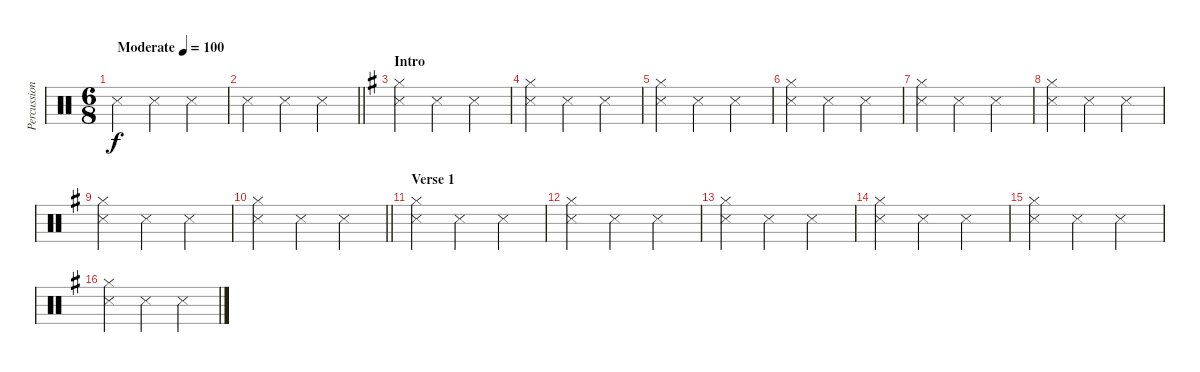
\track ("Percussion" "Percussion") {mute instrument percussion}
\staff {score}
\articulation defaults
\ts (6 8)
\tempo (100 "Moderate")
\clef neutral
\ks c "Snare (side stick) 3".4{dy f} "Snare (side stick) 3".4 "Snare (side stick) 3".4
|
\barLineRight lightlight "Snare (side stick) 3".4 "Snare (side stick) 3".4 "Snare (side stick) 3".4
|
\section ("" "Intro")
\ks g
("Hi-Hat (closed)" "Snare (side stick) 3").4 "Snare (side stick) 3".4 "Snare (side stick) 3".4 |
("Hi-Hat (closed)" "Snare (side stick) 3").4 "Snare (side stick) 3".4 "Snare (side stick) 3".4 |
("Hi-Hat (closed)" "Snare (side stick) 3").4 "Snare (side stick) 3".4 "Snare (side stick) 3".4 |
("Hi-Hat (closed)" "Snare (side stick) 3").4 "Snare (side stick) 3".4 "Snare (side stick) 3".4 |
("Hi-Hat (closed)" "Snare (side stick) 3").4 "Snare (side stick) 3".4 "Snare (side stick) 3".4 |
("Hi-Hat (closed)" "Snare (side stick) 3").4 "Snare (side stick) 3".4 "Snare (side stick) 3".4 |
("Hi-Hat (closed)" "Snare (side stick) 3").4 "Snare (side stick) 3".4 "Snare (side stick) 3".4 |
\barLineRight lightlight
("Hi-Hat (closed)" "Snare (side stick) 3").4 "Snare (side stick) 3".4 "Snare (side stick) 3".4 |
\section ("" "Verse 1")
("Hi-Hat (closed)" "Snare (side stick) 3").4 "Snare (side stick) 3".4 "Snare (side stick) 3".4 |
("Hi-Hat (closed)" "Snare (side stick) 3").4 "Snare (side stick) 3".4 "Snare (side stick) 3".4 |
("Hi-Hat (closed)" "Snare (side stick) 3").4 "Snare (side stick) 3".4 "Snare (side stick) 3".4 |
("Hi-Hat (closed)" "Snare (side stick) 3").4 "Snare (side stick) 3".4 "Snare (side stick) 3".4 |
("Hi-Hat (closed)" "Snare (side stick) 3").4 "Snare (side stick) 3".4 "Snare (side stick) 3".4 |
("Hi-Hat (closed)" "Snare (side stick) 3").4 "Snare (side stick) 3".4 "Snare (side stick) 3".4
